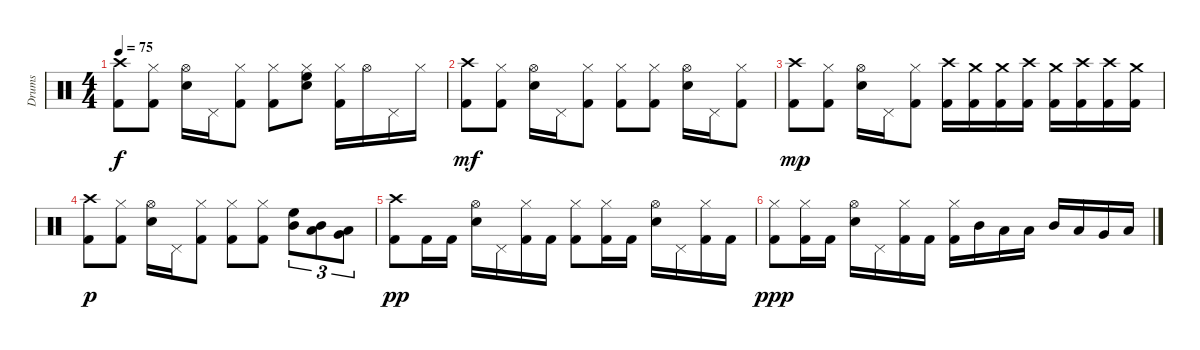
\track ("Drums" "Drums") {instrument percussion}
\staff {score}
\articulation defaults
\ts (4 4)
\tempo 75
\clef neutral
\ks c
("Crash high (hit)" "Kick (hit) 2").8{dy f} ("Hi-Hat (closed)" "Kick (hit) 2").8 ("Hi-Hat (open)" "Snare (hit) 2").16 "Pedal Hi-Hat (hit)".16 ("Hi-Hat (closed)" "Kick (hit) 2").8 ("Hi-Hat (closed)" "Kick (hit) 2").8 ("Hi-Hat (closed)" "High Floor Tom (hit)" "Snare (hit) 2").8 ("Hi-Hat (closed)" "Kick (hit) 2").16 "Hi-Hat (open)".16 "Pedal Hi-Hat (hit)".16 "Hi-Hat (closed)".16 |
("Crash high (hit)" "Kick (hit) 2").8{dy mf} ("Hi-Hat (closed)" "Kick (hit) 2").8 ("Hi-Hat (open)" "Snare (hit) 2").16 "Pedal Hi-Hat (hit)".16 ("Hi-Hat (closed)" "Kick (hit) 2").8 ("Hi-Hat (closed)" "Kick (hit) 2").8 ("Hi-Hat (closed)" "Kick (hit) 2").8 ("Hi-Hat (open)" "Snare (hit) 2").16 "Pedal Hi-Hat (hit)".16 ("Hi-Hat (closed)" "Kick (hit) 2").8 |
("Crash high (hit)" "Kick (hit) 2").8{dy mp} ("Hi-Hat (closed)" "Kick (hit) 2").8 ("Hi-Hat (open)" "Snare (hit) 2").16 "Pedal Hi-Hat (hit)".16 ("Hi-Hat (closed)" "Kick (hit) 2").8 ("Crash high (hit)" "Kick (hit) 2").16 ("Crash medium (hit)" "Kick (hit) 2").16 ("Crash medium (hit)" "Kick (hit) 2").16 ("Crash high (hit)" "Kick (hit) 2").16 ("Crash medium (hit)" "Kick (hit) 2").16 ("Crash high (hit)" "Kick (hit) 2").16 ("Crash high (hit)" "Kick (hit) 2").16 ("Crash medium (hit)" "Kick (hit) 2").16 |
("Crash high (hit)" "Kick (hit) 2").8{dy p} ("Hi-Hat (closed)" "Kick (hit) 2").8 ("Hi-Hat (open)" "Snare (hit) 2").16 "Pedal Hi-Hat (hit)".16 ("Hi-Hat (closed)" "Kick (hit) 2").8 ("Hi-Hat (closed)" "Kick (hit) 2").8 ("Hi-Hat (closed)" "Kick (hit) 2").8 ("High Floor Tom (hit)" "Mid Tom (hit)").8{tu (3 2)} ("Mid Tom (hit)" "Low Tom (hit)").8{tu (3 2)} ("Low Tom (hit)" "Very Low Tom (hit)").8{tu (3 2)} |
("Crash high (hit)" "Kick (hit) 2").8{dy pp} "Kick (hit) 2".16 "Kick (hit) 2".16 ("Hi-Hat (open)" "Snare (hit) 2").16 "Pedal Hi-Hat (hit)".16 ("Hi-Hat (closed)" "Kick (hit) 2").16 "Kick (hit) 2".16 ("Hi-Hat (closed)" "Kick (hit) 2").8 ("Hi-Hat (closed)" "Kick (hit) 2").16 "Kick (hit) 2".16 ("Hi-Hat (open)" "Snare (hit) 2").16 "Pedal Hi-Hat (hit)".16 ("Hi-Hat (closed)" "Kick (hit) 2").16 "Kick (hit) 2".16 |
("Hi-Hat (closed)" "Kick (hit) 2").8{dy ppp} ("Hi-Hat (closed)" "Kick (hit) 2").16 "Kick (hit) 2".16 ("Hi-Hat (open)" "Snare (hit) 2").16 "Pedal Hi-Hat (hit)".16 ("Hi-Hat (closed)" "Kick (hit) 2").16 "Kick (hit) 2".16 ("Hi-Hat (closed)" "Kick (hit) 2").16 "Mid Tom (hit)".16 "Low Tom (hit)".16 "Low Tom (hit)".16 "Mid Tom (hit)".16 "Low Tom (hit)".16 "Very Low Tom (hit)".16 "Low Floor Tom (hit)".16
